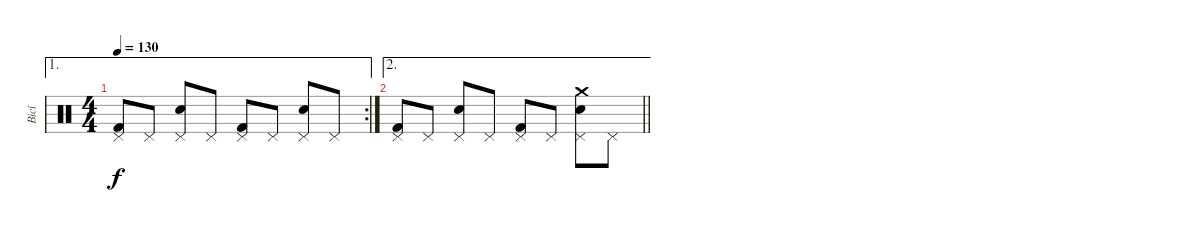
\track ("Bicí" "Bicí") {instrument percussion}
\staff {score}
\articulation defaults
\ae 1
\rc 2
\ts (4 4)
\tempo 130
\clef neutral
\ks c
("Kick (hit) 2" "Pedal Hi-Hat (hit)").8{dy f} "Pedal Hi-Hat (hit)".8 ("Snare (hit) 2" "Pedal Hi-Hat (hit)").8 "Pedal Hi-Hat (hit)".8 ("Kick (hit) 2" "Pedal Hi-Hat (hit)").8 "Pedal Hi-Hat (hit)".8 ("Snare (hit) 2" "Pedal Hi-Hat (hit)").8 "Pedal Hi-Hat (hit)".8 |
\ae 2
\barLineRight lightlight
("Kick (hit) 2" "Pedal Hi-Hat (hit)").8 "Pedal Hi-Hat (hit)".8 ("Snare (hit) 2" "Pedal Hi-Hat (hit)").8 "Pedal Hi-Hat (hit)".8 ("Kick (hit) 2" "Pedal Hi-Hat (hit)").8 "Pedal Hi-Hat (hit)".8 ("Snare (hit) 2" "Crash medium (hit)" "Pedal Hi-Hat (hit)").8 "Pedal Hi-Hat (hit)".8
